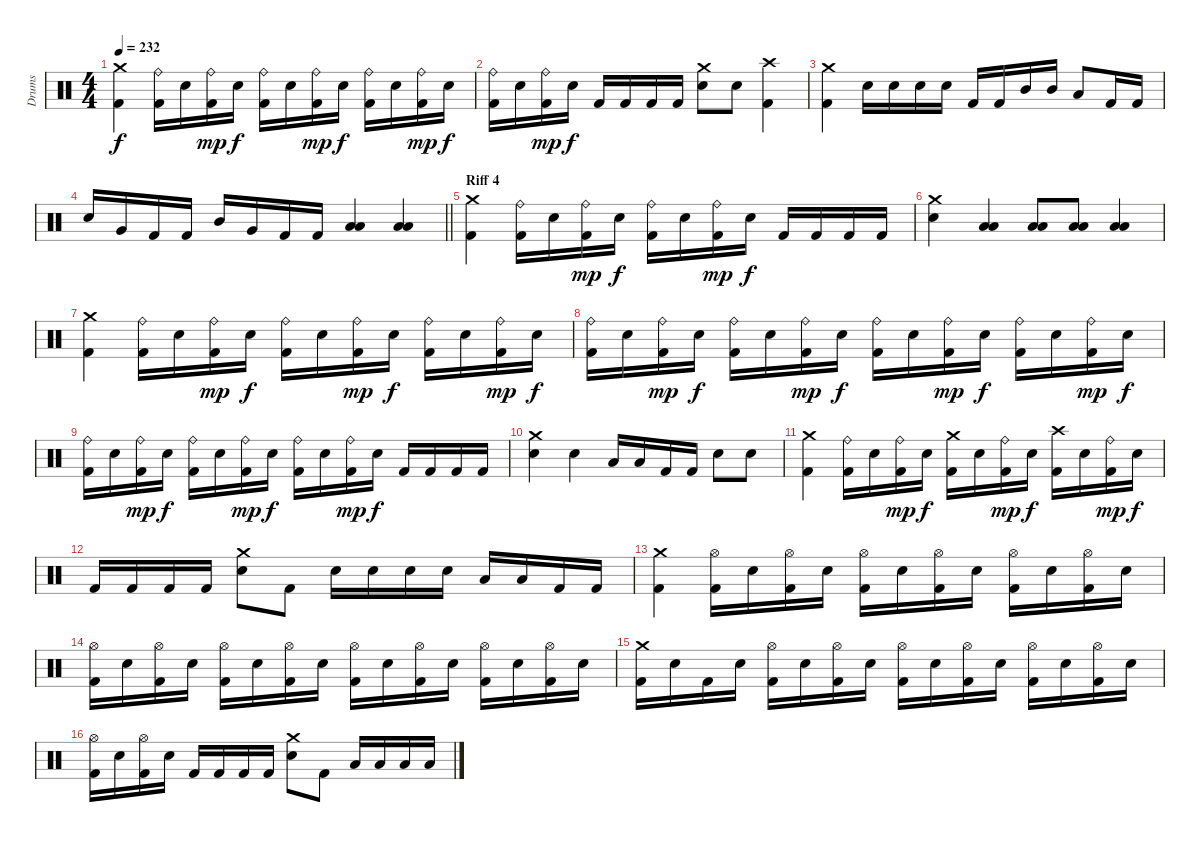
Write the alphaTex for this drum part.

\track ("Drums" "Drums") {instrument percussion}
\staff {score}
\articulation defaults
\ts (4 4)
\tempo 232
\clef neutral
\ks c
("Crash medium (hit)" "Kick (hit) 2").4{dy f} ("Ride (bell)" "Kick (hit) 2").16 "Electric Snare (hit)".16 ("Ride (bell)" "Kick (hit) 2").16{dy mp} "Electric Snare (hit)".16{dy f} ("Ride (bell)" "Kick (hit) 2").16 "Electric Snare (hit)".16 ("Ride (bell)" "Kick (hit) 2").16{dy mp} "Electric Snare (hit)".16{dy f} ("Ride (bell)" "Kick (hit) 2").16 "Electric Snare (hit)".16 ("Ride (bell)" "Kick (hit) 2").16{dy mp} "Electric Snare (hit)".16{dy f} |
("Ride (bell)" "Kick (hit) 2").16 "Electric Snare (hit)".16 ("Ride (bell)" "Kick (hit) 2").16{dy mp} "Electric Snare (hit)".16{dy f} "Kick (hit) 2".16 "Kick (hit) 2".16 "Kick (hit) 2".16 "Kick (hit) 2".16 ("Crash medium (hit)" "Electric Snare (hit)").8 "Electric Snare (hit)".8 ("Crash high (hit)" "Kick (hit) 2").4 |
("Crash medium (hit)" "Kick (hit) 2").4 "Electric Snare (hit)".16 "Electric Snare (hit)".16 "Electric Snare (hit)".16 "Electric Snare (hit)".16 "Kick (hit) 2".16 "Kick (hit) 2".16 "Mid Tom (hit)".16 "Mid Tom (hit)".16 "Low Tom (hit)".8 "Kick (hit) 2".16 "Kick (hit) 2".16 |
\barLineRight lightlight "Electric Snare (hit)".16 "Very Low Tom (hit)".16 "Kick (hit) 2".16 "Kick (hit) 2".16 "Mid Tom (hit)".16 "Very Low Tom (hit)".16 "Kick (hit) 2".16 "Kick (hit) 2".16
("Low Tom (hit)" "Low Floor Tom (hit)").4 ("Low Tom (hit)" "Low Floor Tom (hit)").4 |
\section ("" "Riff 4")
("Crash medium (hit)" "Kick (hit) 2").4 ("Ride (bell)" "Kick (hit) 2").16 "Electric Snare (hit)".16 ("Ride (bell)" "Kick (hit) 2").16{dy mp} "Electric Snare (hit)".16{dy f} ("Ride (bell)" "Kick (hit) 2").16 "Electric Snare (hit)".16 ("Ride (bell)" "Kick (hit) 2").16{dy mp} "Electric Snare (hit)".16{dy f} "Kick (hit) 2".16 "Kick (hit) 2".16 "Kick (hit) 2".16 "Kick (hit) 2".16 |
("Crash medium (hit)" "Electric Snare (hit)").4 ("Low Tom (hit)" "Low Floor Tom (hit)").4 ("Low Tom (hit)" "Low Floor Tom (hit)").8 ("Low Tom (hit)" "Low Floor Tom (hit)").8 ("Low Tom (hit)" "Low Floor Tom (hit)").4 |
("Crash medium (hit)" "Kick (hit) 2").4 ("Ride (bell)" "Kick (hit) 2").16 "Electric Snare (hit)".16 ("Ride (bell)" "Kick (hit) 2").16{dy mp} "Electric Snare (hit)".16{dy f} ("Ride (bell)" "Kick (hit) 2").16 "Electric Snare (hit)".16 ("Ride (bell)" "Kick (hit) 2").16{dy mp} "Electric Snare (hit)".16{dy f} ("Ride (bell)" "Kick (hit) 2").16 "Electric Snare (hit)".16 ("Ride (bell)" "Kick (hit) 2").16{dy mp} "Electric Snare (hit)".16{dy f} |
("Ride (bell)" "Kick (hit) 2").16 "Electric Snare (hit)".16 ("Ride (bell)" "Kick (hit) 2").16{dy mp} "Electric Snare (hit)".16{dy f} ("Ride (bell)" "Kick (hit) 2").16 "Electric Snare (hit)".16 ("Ride (bell)" "Kick (hit) 2").16{dy mp} "Electric Snare (hit)".16{dy f} ("Ride (bell)" "Kick (hit) 2").16 "Electric Snare (hit)".16 ("Ride (bell)" "Kick (hit) 2").16{dy mp} "Electric Snare (hit)".16{dy f} ("Ride (bell)" "Kick (hit) 2").16 "Electric Snare (hit)".16 ("Ride (bell)" "Kick (hit) 2").16{dy mp} "Electric Snare (hit)".16{dy f} |
("Ride (bell)" "Kick (hit) 2").16 "Electric Snare (hit)".16 ("Ride (bell)" "Kick (hit) 2").16{dy mp} "Electric Snare (hit)".16{dy f} ("Ride (bell)" "Kick (hit) 2").16 "Electric Snare (hit)".16 ("Ride (bell)" "Kick (hit) 2").16{dy mp} "Electric Snare (hit)".16{dy f} ("Ride (bell)" "Kick (hit) 2").16 "Electric Snare (hit)".16 ("Ride (bell)" "Kick (hit) 2").16{dy mp} "Electric Snare (hit)".16{dy f} "Kick (hit) 2".16 "Kick (hit) 2".16 "Kick (hit) 2".16 "Kick (hit) 2".16 |
("Crash medium (hit)" "Electric Snare (hit)").4 "Electric Snare (hit)".4 "Low Tom (hit)".16 "Low Tom (hit)".16 "Kick (hit) 2".16 "Kick (hit) 2".16 "Electric Snare (hit)".8 "Electric Snare (hit)".8 |
("Crash medium (hit)" "Kick (hit) 2").4 ("Ride (bell)" "Kick (hit) 2").16 "Electric Snare (hit)".16 ("Ride (bell)" "Kick (hit) 2").16{dy mp} "Electric Snare (hit)".16{dy f} ("Crash medium (hit)" "Kick (hit) 2").16 "Electric Snare (hit)".16 ("Ride (bell)" "Kick (hit) 2").16{dy mp} "Electric Snare (hit)".16{dy f} ("Crash high (hit)" "Kick (hit) 2").16 "Electric Snare (hit)".16 ("Ride (bell)" "Kick (hit) 2").16{dy mp} "Electric Snare (hit)".16{dy f} |
"Kick (hit) 2".16 "Kick (hit) 2".16 "Kick (hit) 2".16 "Kick (hit) 2".16 ("Electric Snare (hit)" "Crash medium (hit)").8 "Kick (hit) 2".8 "Electric Snare (hit)".16 "Electric Snare (hit)".16 "Electric Snare (hit)".16 "Electric Snare (hit)".16 "Low Tom (hit)".16 "Low Tom (hit)".16 "Kick (hit) 2".16 "Kick (hit) 2".16 |
("Crash medium (hit)" "Kick (hit) 2").4 ("Hi-Hat (open)" "Kick (hit) 2").16 "Electric Snare (hit)".16 ("Hi-Hat (open)" "Kick (hit) 2").16 "Electric Snare (hit)".16 ("Hi-Hat (open)" "Kick (hit) 2").16 "Electric Snare (hit)".16 ("Hi-Hat (open)" "Kick (hit) 2").16 "Electric Snare (hit)".16 ("Hi-Hat (open)" "Kick (hit) 2").16 "Electric Snare (hit)".16 ("Hi-Hat (open)" "Kick (hit) 2").16 "Electric Snare (hit)".16 |
("Hi-Hat (open)" "Kick (hit) 2").16 "Electric Snare (hit)".16 ("Hi-Hat (open)" "Kick (hit) 2").16 "Electric Snare (hit)".16 ("Hi-Hat (open)" "Kick (hit) 2").16 "Electric Snare (hit)".16 ("Hi-Hat (open)" "Kick (hit) 2").16 "Electric Snare (hit)".16 ("Hi-Hat (open)" "Kick (hit) 2").16 "Electric Snare (hit)".16 ("Hi-Hat (open)" "Kick (hit) 2").16 "Electric Snare (hit)".16 ("Hi-Hat (open)" "Kick (hit) 2").16 "Electric Snare (hit)".16 ("Hi-Hat (open)" "Kick (hit) 2").16 "Electric Snare (hit)".16 |
("Crash medium (hit)" "Kick (hit) 2").16 "Electric Snare (hit)".16 "Kick (hit) 2".16 "Electric Snare (hit)".16 ("Hi-Hat (open)" "Kick (hit) 2").16 "Electric Snare (hit)".16 ("Hi-Hat (open)" "Kick (hit) 2").16 "Electric Snare (hit)".16 ("Hi-Hat (open)" "Kick (hit) 2").16 "Electric Snare (hit)".16 ("Hi-Hat (open)" "Kick (hit) 2").16 "Electric Snare (hit)".16 ("Hi-Hat (open)" "Kick (hit) 2").16 "Electric Snare (hit)".16 ("Hi-Hat (open)" "Kick (hit) 2").16 "Electric Snare (hit)".16 |
("Hi-Hat (open)" "Kick (hit) 2").16 "Electric Snare (hit)".16 ("Hi-Hat (open)" "Kick (hit) 2").16 "Electric Snare (hit)".16 "Kick (hit) 2".16 "Kick (hit) 2".16 "Kick (hit) 2".16 "Kick (hit) 2".16 ("Crash medium (hit)" "Electric Snare (hit)").8 "Kick (hit) 2".8 "Low Tom (hit)".16 "Low Tom (hit)".16 "Low Tom (hit)".16 "Low Tom (hit)".16
